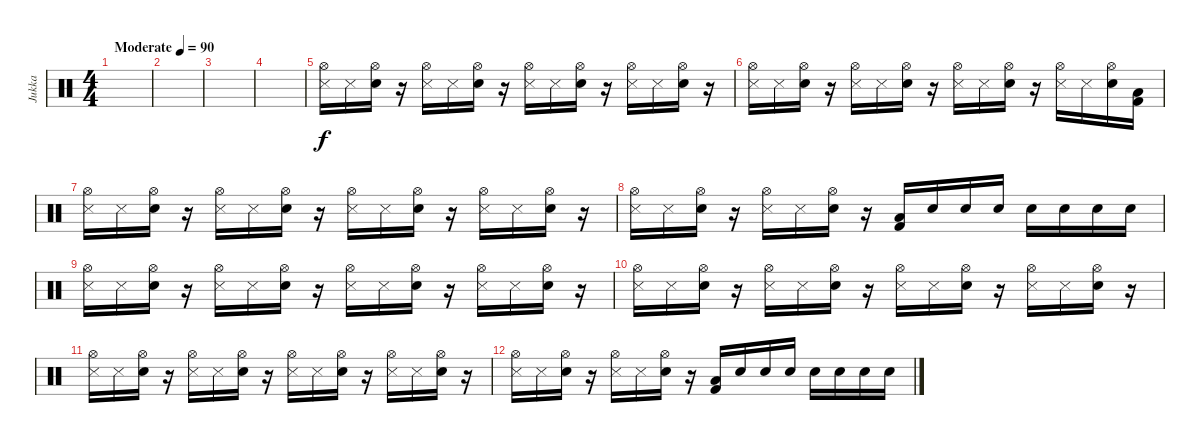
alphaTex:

\track ("Jukka" "Jukka") {instrument percussion}
\staff {score}
\articulation defaults
\ts (4 4)
\tempo (90 "Moderate")
\clef neutral
\ks c
|
|
|
|
("Hi-Hat (open)" "Snare (side stick) 3").16 "Snare (side stick) 3".16 ("Snare (hit) 2" "Hi-Hat (open)").16 r.16 ("Hi-Hat (open)" "Snare (side stick) 3").16 "Snare (side stick) 3".16 ("Snare (hit) 2" "Hi-Hat (open)").16 r.16 ("Hi-Hat (open)" "Snare (side stick) 3").16 "Snare (side stick) 3".16 ("Snare (hit) 2" "Hi-Hat (open)").16 r.16 ("Hi-Hat (open)" "Snare (side stick) 3").16 "Snare (side stick) 3".16 ("Snare (hit) 2" "Hi-Hat (open)").16 r.16 |
("Hi-Hat (open)" "Snare (side stick) 3").16 "Snare (side stick) 3".16 ("Snare (hit) 2" "Hi-Hat (open)").16 r.16 ("Hi-Hat (open)" "Snare (side stick) 3").16 "Snare (side stick) 3".16 ("Snare (hit) 2" "Hi-Hat (open)").16 r.16 ("Hi-Hat (open)" "Snare (side stick) 3").16 "Snare (side stick) 3".16 ("Snare (hit) 2" "Hi-Hat (open)").16 r.16 ("Hi-Hat (open)" "Snare (side stick) 3").16 "Snare (side stick) 3".16 ("Snare (hit) 2" "Hi-Hat (open)").16 ("Low Floor Tom (hit)" "Kick (hit) 2").16 |
("Hi-Hat (open)" "Snare (side stick) 3").16 "Snare (side stick) 3".16 ("Snare (hit) 2" "Hi-Hat (open)").16 r.16 ("Hi-Hat (open)" "Snare (side stick) 3").16 "Snare (side stick) 3".16 ("Snare (hit) 2" "Hi-Hat (open)").16 r.16 ("Hi-Hat (open)" "Snare (side stick) 3").16 "Snare (side stick) 3".16 ("Snare (hit) 2" "Hi-Hat (open)").16 r.16 ("Hi-Hat (open)" "Snare (side stick) 3").16 "Snare (side stick) 3".16 ("Snare (hit) 2" "Hi-Hat (open)").16 r.16 |
("Hi-Hat (open)" "Snare (side stick) 3").16 "Snare (side stick) 3".16 ("Snare (hit) 2" "Hi-Hat (open)").16 r.16 ("Hi-Hat (open)" "Snare (side stick) 3").16 "Snare (side stick) 3".16 ("Snare (hit) 2" "Hi-Hat (open)").16 r.16 ("Low Floor Tom (hit)" "Kick (hit) 2").16 "Snare (hit) 2".16 "Snare (hit) 2".16 "Snare (hit) 2".16 "Snare (hit) 2".16 "Snare (hit) 2".16 "Snare (hit) 2".16 "Snare (hit) 2".16 |
("Hi-Hat (open)" "Snare (side stick) 3").16 "Snare (side stick) 3".16 ("Snare (hit) 2" "Hi-Hat (open)").16 r.16 ("Hi-Hat (open)" "Snare (side stick) 3").16 "Snare (side stick) 3".16 ("Snare (hit) 2" "Hi-Hat (open)").16 r.16 ("Hi-Hat (open)" "Snare (side stick) 3").16 "Snare (side stick) 3".16 ("Snare (hit) 2" "Hi-Hat (open)").16 r.16 ("Hi-Hat (open)" "Snare (side stick) 3").16 "Snare (side stick) 3".16 ("Snare (hit) 2" "Hi-Hat (open)").16 r.16 |
("Hi-Hat (open)" "Snare (side stick) 3").16 "Snare (side stick) 3".16 ("Snare (hit) 2" "Hi-Hat (open)").16 r.16 ("Hi-Hat (open)" "Snare (side stick) 3").16 "Snare (side stick) 3".16 ("Snare (hit) 2" "Hi-Hat (open)").16 r.16 ("Hi-Hat (open)" "Snare (side stick) 3").16 "Snare (side stick) 3".16 ("Snare (hit) 2" "Hi-Hat (open)").16 r.16 ("Hi-Hat (open)" "Snare (side stick) 3").16 "Snare (side stick) 3".16 ("Snare (hit) 2" "Hi-Hat (open)").16 r.16 |
("Hi-Hat (open)" "Snare (side stick) 3").16 "Snare (side stick) 3".16 ("Snare (hit) 2" "Hi-Hat (open)").16 r.16 ("Hi-Hat (open)" "Snare (side stick) 3").16 "Snare (side stick) 3".16 ("Snare (hit) 2" "Hi-Hat (open)").16 r.16 ("Hi-Hat (open)" "Snare (side stick) 3").16 "Snare (side stick) 3".16 ("Snare (hit) 2" "Hi-Hat (open)").16 r.16 ("Hi-Hat (open)" "Snare (side stick) 3").16 "Snare (side stick) 3".16 ("Snare (hit) 2" "Hi-Hat (open)").16 r.16 |
("Hi-Hat (open)" "Snare (side stick) 3").16 "Snare (side stick) 3".16 ("Snare (hit) 2" "Hi-Hat (open)").16 r.16 ("Hi-Hat (open)" "Snare (side stick) 3").16 "Snare (side stick) 3".16 ("Snare (hit) 2" "Hi-Hat (open)").16 r.16 ("Low Floor Tom (hit)" "Kick (hit) 2").16 "Snare (hit) 2".16 "Snare (hit) 2".16 "Snare (hit) 2".16 "Snare (hit) 2".16 "Snare (hit) 2".16 "Snare (hit) 2".16 "Snare (hit) 2".16
